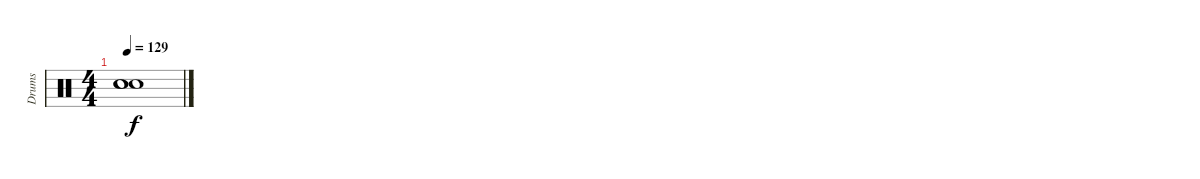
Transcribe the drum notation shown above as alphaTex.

\track ("Drums" "Drums") {instrument percussion}
\staff {score}
\articulation defaults
\ts (4 4)
\tempo 129
\clef neutral
\ks c
("Snare (hit)"{t} "Snare (hit)"{t} "Snare (hit)"{t}).1{dy f}
